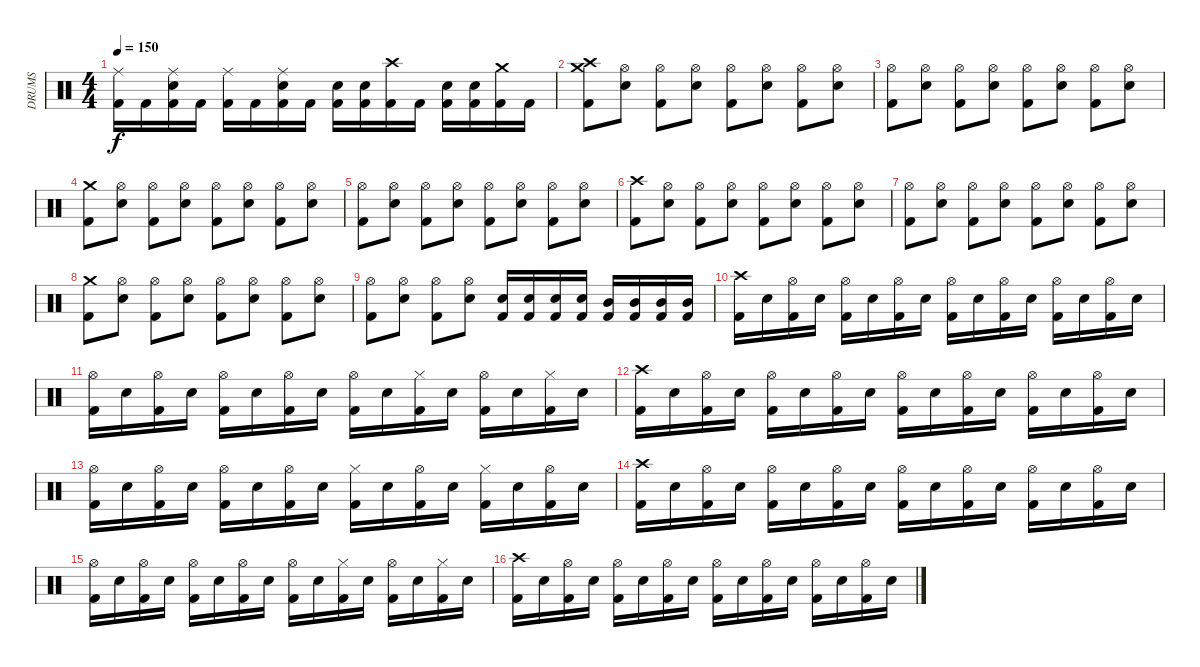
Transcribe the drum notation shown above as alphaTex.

\track ("DRUMS" "DRUMS") {instrument percussion}
\staff {score}
\articulation defaults
\ts (4 4)
\tempo 150
\clef neutral
\ks c
("Kick (hit) 2" "Ride (middle)").16{dy f} "Kick (hit) 2".16 ("Kick (hit) 2" "Snare (hit) 2" "Ride (middle)").16 "Kick (hit) 2".16 ("Kick (hit) 2" "Ride (middle)").16 "Kick (hit) 2".16 ("Kick (hit) 2" "Snare (hit) 2" "Ride (middle)").16 "Kick (hit) 2".16 ("Kick (hit) 2" "Snare (hit) 2").16 ("Kick (hit) 2" "Snare (hit) 2").16 ("Kick (hit) 2" "Crash high (hit)").16 "Kick (hit) 2".16 ("Kick (hit) 2" "Snare (hit) 2").16 ("Kick (hit) 2" "Snare (hit) 2").16 ("Kick (hit) 2" "Crash medium (hit)").16 "Kick (hit) 2".16 |
("Kick (hit) 2" "Crash high (hit)" "Crash medium (hit)").8 ("Snare (hit) 2" "Hi-Hat (open)").8 ("Kick (hit) 2" "Hi-Hat (open)").8 ("Snare (hit) 2" "Hi-Hat (open)").8 ("Kick (hit) 2" "Hi-Hat (open)").8 ("Snare (hit) 2" "Hi-Hat (open)").8 ("Kick (hit) 2" "Hi-Hat (open)").8 ("Snare (hit) 2" "Hi-Hat (open)").8 |
("Kick (hit) 2" "Hi-Hat (open)").8 ("Snare (hit) 2" "Hi-Hat (open)").8 ("Kick (hit) 2" "Hi-Hat (open)").8 ("Snare (hit) 2" "Hi-Hat (open)").8 ("Kick (hit) 2" "Hi-Hat (open)").8 ("Snare (hit) 2" "Hi-Hat (open)").8 ("Kick (hit) 2" "Hi-Hat (open)").8 ("Snare (hit) 2" "Hi-Hat (open)").8 |
("Kick (hit) 2" "Crash medium (hit)").8 ("Snare (hit) 2" "Hi-Hat (open)").8 ("Kick (hit) 2" "Hi-Hat (open)").8 ("Snare (hit) 2" "Hi-Hat (open)").8 ("Kick (hit) 2" "Hi-Hat (open)").8 ("Snare (hit) 2" "Hi-Hat (open)").8 ("Kick (hit) 2" "Hi-Hat (open)").8 ("Snare (hit) 2" "Hi-Hat (open)").8 |
("Kick (hit) 2" "Hi-Hat (open)").8 ("Snare (hit) 2" "Hi-Hat (open)").8 ("Kick (hit) 2" "Hi-Hat (open)").8 ("Snare (hit) 2" "Hi-Hat (open)").8 ("Kick (hit) 2" "Hi-Hat (open)").8 ("Snare (hit) 2" "Hi-Hat (open)").8 ("Kick (hit) 2" "Hi-Hat (open)").8 ("Snare (hit) 2" "Hi-Hat (open)").8 |
("Kick (hit) 2" "Crash high (hit)").8 ("Snare (hit) 2" "Hi-Hat (open)").8 ("Kick (hit) 2" "Hi-Hat (open)").8 ("Snare (hit) 2" "Hi-Hat (open)").8 ("Kick (hit) 2" "Hi-Hat (open)").8 ("Snare (hit) 2" "Hi-Hat (open)").8 ("Kick (hit) 2" "Hi-Hat (open)").8 ("Snare (hit) 2" "Hi-Hat (open)").8 |
("Kick (hit) 2" "Hi-Hat (open)").8 ("Snare (hit) 2" "Hi-Hat (open)").8 ("Kick (hit) 2" "Hi-Hat (open)").8 ("Snare (hit) 2" "Hi-Hat (open)").8 ("Kick (hit) 2" "Hi-Hat (open)").8 ("Snare (hit) 2" "Hi-Hat (open)").8 ("Kick (hit) 2" "Hi-Hat (open)").8 ("Snare (hit) 2" "Hi-Hat (open)").8 |
("Kick (hit) 2" "Crash medium (hit)").8 ("Snare (hit) 2" "Hi-Hat (open)").8 ("Kick (hit) 2" "Hi-Hat (open)").8 ("Snare (hit) 2" "Hi-Hat (open)").8 ("Kick (hit) 2" "Hi-Hat (open)").8 ("Snare (hit) 2" "Hi-Hat (open)").8 ("Kick (hit) 2" "Hi-Hat (open)").8 ("Snare (hit) 2" "Hi-Hat (open)").8 |
("Kick (hit) 2" "Hi-Hat (open)").8 ("Snare (hit) 2" "Hi-Hat (open)").8 ("Kick (hit) 2" "Hi-Hat (open)").8 ("Snare (hit) 2" "Hi-Hat (open)").8 ("Kick (hit) 2" "Snare (hit) 2").16 ("Kick (hit) 2" "Snare (hit) 2").16 ("Kick (hit) 2" "Snare (hit) 2").16 ("Kick (hit) 2" "Snare (hit) 2").16 ("Kick (hit) 2" "Mid Tom (hit)").16 ("Kick (hit) 2" "Mid Tom (hit)").16 ("Kick (hit) 2" "Mid Tom (hit)").16 ("Kick (hit) 2" "Mid Tom (hit)").16 |
("Kick (hit) 2" "Crash high (hit)").16 "Snare (hit) 2".16 ("Kick (hit) 2" "Hi-Hat (open)").16 "Snare (hit) 2".16 ("Kick (hit) 2" "Hi-Hat (open)").16 "Snare (hit) 2".16 ("Kick (hit) 2" "Hi-Hat (open)").16 "Snare (hit) 2".16 ("Kick (hit) 2" "Hi-Hat (open)").16 "Snare (hit) 2".16 ("Kick (hit) 2" "Hi-Hat (open)").16 "Snare (hit) 2".16 ("Kick (hit) 2" "Hi-Hat (open)").16 "Snare (hit) 2".16 ("Kick (hit) 2" "Hi-Hat (open)").16 "Snare (hit) 2".16 |
("Kick (hit) 2" "Hi-Hat (open)").16 "Snare (hit) 2".16 ("Kick (hit) 2" "Hi-Hat (open)").16 "Snare (hit) 2".16 ("Kick (hit) 2" "Hi-Hat (open)").16 "Snare (hit) 2".16 ("Kick (hit) 2" "Hi-Hat (open)").16 "Snare (hit) 2".16 ("Kick (hit) 2" "Hi-Hat (open)").16 "Snare (hit) 2".16 ("Kick (hit) 2" "Hi-Hat (closed)").16 "Snare (hit) 2".16 ("Kick (hit) 2" "Hi-Hat (open)").16 "Snare (hit) 2".16 ("Kick (hit) 2" "Hi-Hat (closed)").16 "Snare (hit) 2".16 |
("Kick (hit) 2" "Crash high (hit)").16 "Snare (hit) 2".16 ("Kick (hit) 2" "Hi-Hat (open)").16 "Snare (hit) 2".16 ("Kick (hit) 2" "Hi-Hat (open)").16 "Snare (hit) 2".16 ("Kick (hit) 2" "Hi-Hat (open)").16 "Snare (hit) 2".16 ("Kick (hit) 2" "Hi-Hat (open)").16 "Snare (hit) 2".16 ("Kick (hit) 2" "Hi-Hat (open)").16 "Snare (hit) 2".16 ("Kick (hit) 2" "Hi-Hat (open)").16 "Snare (hit) 2".16 ("Kick (hit) 2" "Hi-Hat (open)").16 "Snare (hit) 2".16 |
("Kick (hit) 2" "Hi-Hat (open)").16 "Snare (hit) 2".16 ("Kick (hit) 2" "Hi-Hat (open)").16 "Snare (hit) 2".16 ("Kick (hit) 2" "Hi-Hat (open)").16 "Snare (hit) 2".16 ("Kick (hit) 2" "Hi-Hat (open)").16 "Snare (hit) 2".16 ("Kick (hit) 2" "Hi-Hat (closed)").16 "Snare (hit) 2".16 ("Kick (hit) 2" "Hi-Hat (open)").16 "Snare (hit) 2".16 ("Kick (hit) 2" "Hi-Hat (closed)").16 "Snare (hit) 2".16 ("Kick (hit) 2" "Hi-Hat (open)").16 "Snare (hit) 2".16 |
("Kick (hit) 2" "Crash high (hit)").16 "Snare (hit) 2".16 ("Kick (hit) 2" "Hi-Hat (open)").16 "Snare (hit) 2".16 ("Kick (hit) 2" "Hi-Hat (open)").16 "Snare (hit) 2".16 ("Kick (hit) 2" "Hi-Hat (open)").16 "Snare (hit) 2".16 ("Kick (hit) 2" "Hi-Hat (open)").16 "Snare (hit) 2".16 ("Kick (hit) 2" "Hi-Hat (open)").16 "Snare (hit) 2".16 ("Kick (hit) 2" "Hi-Hat (open)").16 "Snare (hit) 2".16 ("Kick (hit) 2" "Hi-Hat (open)").16 "Snare (hit) 2".16 |
("Kick (hit) 2" "Hi-Hat (open)").16 "Snare (hit) 2".16 ("Kick (hit) 2" "Hi-Hat (open)").16 "Snare (hit) 2".16 ("Kick (hit) 2" "Hi-Hat (open)").16 "Snare (hit) 2".16 ("Kick (hit) 2" "Hi-Hat (open)").16 "Snare (hit) 2".16 ("Kick (hit) 2" "Hi-Hat (open)").16 "Snare (hit) 2".16 ("Kick (hit) 2" "Hi-Hat (closed)").16 "Snare (hit) 2".16 ("Kick (hit) 2" "Hi-Hat (open)").16 "Snare (hit) 2".16 ("Kick (hit) 2" "Hi-Hat (closed)").16 "Snare (hit) 2".16 |
("Kick (hit) 2" "Crash high (hit)").16 "Snare (hit) 2".16 ("Kick (hit) 2" "Hi-Hat (open)").16 "Snare (hit) 2".16 ("Kick (hit) 2" "Hi-Hat (open)").16 "Snare (hit) 2".16 ("Kick (hit) 2" "Hi-Hat (open)").16 "Snare (hit) 2".16 ("Kick (hit) 2" "Hi-Hat (open)").16 "Snare (hit) 2".16 ("Kick (hit) 2" "Hi-Hat (open)").16 "Snare (hit) 2".16 ("Kick (hit) 2" "Hi-Hat (open)").16 "Snare (hit) 2".16 ("Kick (hit) 2" "Hi-Hat (open)").16 "Snare (hit) 2".16
